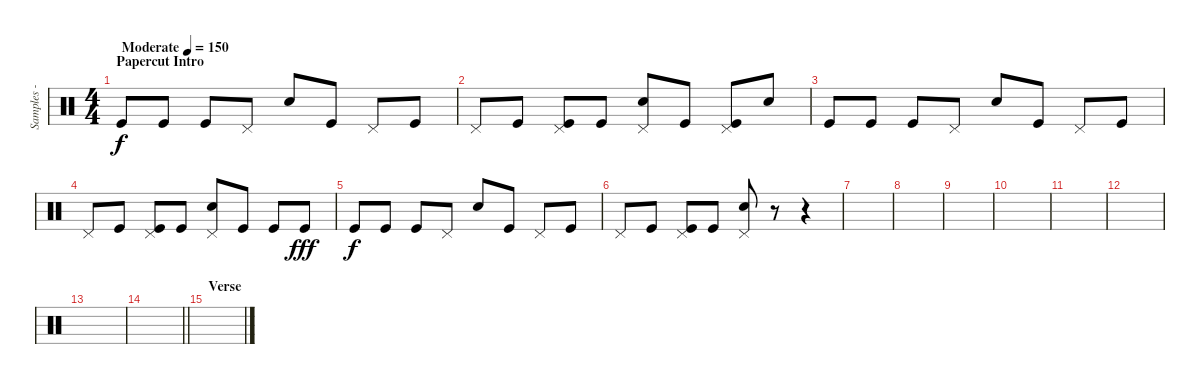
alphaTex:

\track ("Samples - Joe Hahn" "Samples - ") {instrument percussion}
\staff {score}
\articulation defaults
\ts (4 4)
\section ("" "Papercut Intro")
\tempo (150 "Moderate")
\clef neutral
\ks c "Kick (hit)".8{dy f} "Kick (hit)".8 "Kick (hit)".8 "Pedal Hi-Hat (hit)".8 "Electric Snare (hit)".8 "Kick (hit)".8 "Pedal Hi-Hat (hit)".8 "Kick (hit)".8
|
"Pedal Hi-Hat (hit)".8 "Kick (hit)".8 ("Pedal Hi-Hat (hit)" "Kick (hit)").8 "Kick (hit)".8 ("Pedal Hi-Hat (hit)" "Electric Snare (hit)").8 "Kick (hit)".8 ("Pedal Hi-Hat (hit)" "Kick (hit)").8 "Electric Snare (hit)".8 |
"Kick (hit)".8 "Kick (hit)".8 "Kick (hit)".8 "Pedal Hi-Hat (hit)".8 "Electric Snare (hit)".8 "Kick (hit)".8 "Pedal Hi-Hat (hit)".8 "Kick (hit)".8 |
"Pedal Hi-Hat (hit)".8 "Kick (hit)".8 ("Pedal Hi-Hat (hit)" "Kick (hit)").8 "Kick (hit)".8 ("Pedal Hi-Hat (hit)" "Electric Snare (hit)").8 "Kick (hit)".8 "Kick (hit)".8 "Kick (hit)".8{dy fff} |
"Kick (hit)".8{dy f} "Kick (hit)".8 "Kick (hit)".8 "Pedal Hi-Hat (hit)".8 "Electric Snare (hit)".8 "Kick (hit)".8 "Pedal Hi-Hat (hit)".8 "Kick (hit)".8 |
"Pedal Hi-Hat (hit)".8 "Kick (hit)".8 ("Pedal Hi-Hat (hit)" "Kick (hit)").8 "Kick (hit)".8 ("Pedal Hi-Hat (hit)" "Electric Snare (hit)").8 r.8 r.4 |
|
|
|
|
|
|
|
\barLineRight lightlight
|
\section ("" "Verse")
